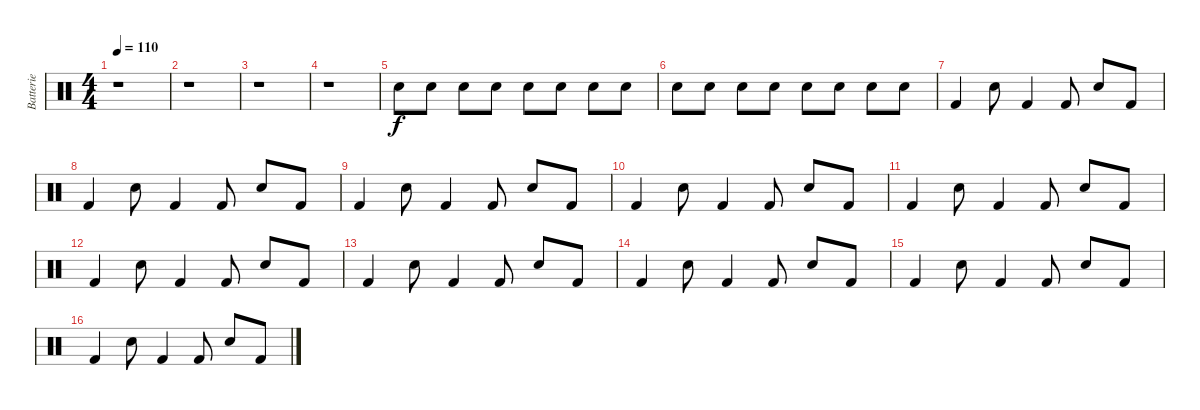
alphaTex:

\track ("Batterie" "Batterie") {instrument percussion}
\staff {score}
\articulation defaults
\ts (4 4)
\tempo 110
\clef neutral
\ks c
r.1{dy f} |
r.1 |
r.1 |
r.1 |
"Snare (hit) 2".8 "Snare (hit) 2".8 "Snare (hit) 2".8 "Snare (hit) 2".8 "Snare (hit) 2".8 "Snare (hit) 2".8 "Snare (hit) 2".8 "Snare (hit) 2".8 |
"Snare (hit) 2".8 "Snare (hit) 2".8 "Snare (hit) 2".8 "Snare (hit) 2".8 "Snare (hit) 2".8 "Snare (hit) 2".8 "Snare (hit) 2".8 "Snare (hit) 2".8 |
"Kick (hit) 2".4 "Snare (hit) 2".8 "Kick (hit) 2".4 "Kick (hit) 2".8 "Snare (hit) 2".8 "Kick (hit) 2".8 |
"Kick (hit) 2".4 "Snare (hit) 2".8 "Kick (hit) 2".4 "Kick (hit) 2".8 "Snare (hit) 2".8 "Kick (hit) 2".8 |
"Kick (hit) 2".4 "Snare (hit) 2".8 "Kick (hit) 2".4 "Kick (hit) 2".8 "Snare (hit) 2".8 "Kick (hit) 2".8 |
"Kick (hit) 2".4 "Snare (hit) 2".8 "Kick (hit) 2".4 "Kick (hit) 2".8 "Snare (hit) 2".8 "Kick (hit) 2".8 |
"Kick (hit) 2".4 "Snare (hit) 2".8 "Kick (hit) 2".4 "Kick (hit) 2".8 "Snare (hit) 2".8 "Kick (hit) 2".8 |
"Kick (hit) 2".4 "Snare (hit) 2".8 "Kick (hit) 2".4 "Kick (hit) 2".8 "Snare (hit) 2".8 "Kick (hit) 2".8 |
"Kick (hit) 2".4 "Snare (hit) 2".8 "Kick (hit) 2".4 "Kick (hit) 2".8 "Snare (hit) 2".8 "Kick (hit) 2".8 |
"Kick (hit) 2".4 "Snare (hit) 2".8 "Kick (hit) 2".4 "Kick (hit) 2".8 "Snare (hit) 2".8 "Kick (hit) 2".8 |
"Kick (hit) 2".4 "Snare (hit) 2".8 "Kick (hit) 2".4 "Kick (hit) 2".8 "Snare (hit) 2".8 "Kick (hit) 2".8 |
"Kick (hit) 2".4 "Snare (hit) 2".8 "Kick (hit) 2".4 "Kick (hit) 2".8 "Snare (hit) 2".8 "Kick (hit) 2".8
